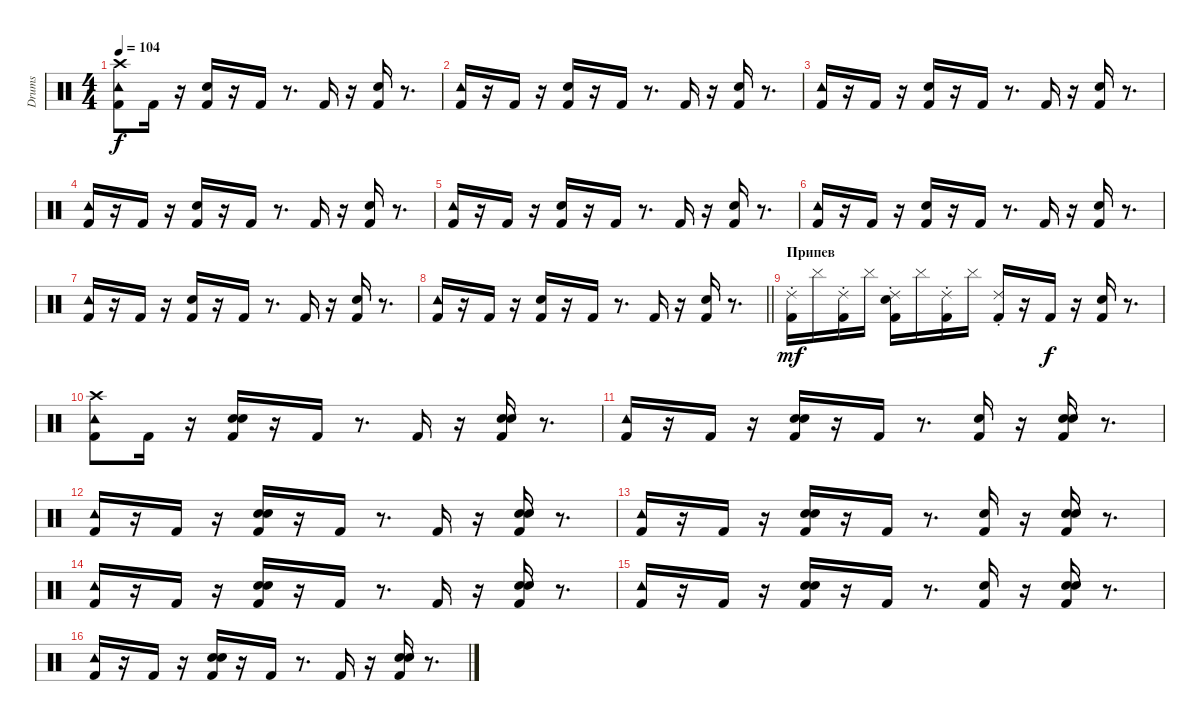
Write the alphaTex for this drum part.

\track ("Drums" "Drums") {instrument percussion}
\staff {score}
\articulation defaults
\ts (4 4)
\tempo 104
\clef neutral
\ks c
("Crash high (hit)" "Tambourine (hit)" "Kick (hit) 2").8{dy f} "Kick (hit) 2".16 r.16 ("Kick (hit) 2" "Snare (hit) 2").16 r.16 "Kick (hit) 2".16 r.8{d} "Kick (hit) 2".16 r.16 ("Snare (hit) 2" "Kick (hit) 2").16 r.8{d} |
("Tambourine (hit)" "Kick (hit) 2").16 r.16 "Kick (hit) 2".16 r.16 ("Kick (hit) 2" "Snare (hit) 2").16 r.16 "Kick (hit) 2".16 r.8{d} "Kick (hit) 2".16 r.16 ("Snare (hit) 2" "Kick (hit) 2").16 r.8{d} |
("Tambourine (hit)" "Kick (hit) 2").16 r.16 "Kick (hit) 2".16 r.16 ("Kick (hit) 2" "Snare (hit) 2").16 r.16 "Kick (hit) 2".16 r.8{d} "Kick (hit) 2".16 r.16 ("Snare (hit) 2" "Kick (hit) 2").16 r.8{d} |
("Tambourine (hit)" "Kick (hit) 2").16 r.16 "Kick (hit) 2".16 r.16 ("Kick (hit) 2" "Snare (hit) 2").16 r.16 "Kick (hit) 2".16 r.8{d} "Kick (hit) 2".16 r.16 ("Snare (hit) 2" "Kick (hit) 2").16 r.8{d} |
("Tambourine (hit)" "Kick (hit) 2").16 r.16 "Kick (hit) 2".16 r.16 ("Kick (hit) 2" "Snare (hit) 2").16 r.16 "Kick (hit) 2".16 r.8{d} "Kick (hit) 2".16 r.16 ("Snare (hit) 2" "Kick (hit) 2").16 r.8{d} |
("Tambourine (hit)" "Kick (hit) 2").16 r.16 "Kick (hit) 2".16 r.16 ("Kick (hit) 2" "Snare (hit) 2").16 r.16 "Kick (hit) 2".16 r.8{d} "Kick (hit) 2".16 r.16 ("Snare (hit) 2" "Kick (hit) 2").16 r.8{d} |
("Tambourine (hit)" "Kick (hit) 2").16 r.16 "Kick (hit) 2".16 r.16 ("Kick (hit) 2" "Snare (hit) 2").16 r.16 "Kick (hit) 2".16 r.8{d} "Kick (hit) 2".16 r.16 ("Snare (hit) 2" "Kick (hit) 2").16 r.8{d} |
\barLineRight lightlight
("Tambourine (hit)" "Kick (hit) 2").16 r.16 "Kick (hit) 2".16 r.16 ("Kick (hit) 2" "Snare (hit) 2").16 r.16 "Kick (hit) 2".16 r.8{d} "Kick (hit) 2".16 r.16 ("Snare (hit) 2" "Kick (hit) 2").16 r.8{d} |
\section ("" "Припев")
("Kick (hit) 2" "Ride (choke) 2").16{dy mf} "Cymbal (hit)".16 ("Kick (hit) 2" "Ride (choke) 2").16 "Cymbal (hit)".16 ("Snare (hit) 2" "Kick (hit) 2" "Ride (choke) 2").16 "Cymbal (hit)".16 ("Kick (hit) 2" "Ride (choke) 2").16 "Cymbal (hit)".16 ("Kick (hit) 2" "Ride (choke) 2").16 r.16 "Kick (hit) 2".16{dy f} r.16 ("Snare (hit) 2" "Kick (hit) 2").16 r.8{d} |
("Crash high (hit)" "Tambourine (hit)" "Kick (hit) 2").8 "Kick (hit) 2".16 r.16 ("Hand Clap (hit)" "Kick (hit) 2" "Snare (hit) 2").16 r.16 "Kick (hit) 2".16 r.8{d} "Kick (hit) 2".16 r.16 ("Hand Clap (hit)" "Snare (hit) 2" "Kick (hit) 2").16 r.8{d} |
("Tambourine (hit)" "Kick (hit) 2").16 r.16 "Kick (hit) 2".16 r.16 ("Hand Clap (hit)" "Kick (hit) 2" "Snare (hit) 2").16 r.16 "Kick (hit) 2".16 r.8{d} ("Hand Clap (hit)" "Kick (hit) 2").16 r.16 ("Hand Clap (hit)" "Snare (hit) 2" "Kick (hit) 2").16 r.8{d} |
("Tambourine (hit)" "Kick (hit) 2").16 r.16 "Kick (hit) 2".16 r.16 ("Kick (hit) 2" "Snare (hit) 2" "Hand Clap (hit)").16 r.16 "Kick (hit) 2".16 r.8{d} "Kick (hit) 2".16 r.16 ("Snare (hit) 2" "Kick (hit) 2" "Hand Clap (hit)").16 r.8{d} |
("Tambourine (hit)" "Kick (hit) 2").16 r.16 "Kick (hit) 2".16 r.16 ("Hand Clap (hit)" "Kick (hit) 2" "Snare (hit) 2").16 r.16 "Kick (hit) 2".16 r.8{d} ("Hand Clap (hit)" "Kick (hit) 2").16 r.16 ("Hand Clap (hit)" "Snare (hit) 2" "Kick (hit) 2").16 r.8{d} |
("Tambourine (hit)" "Kick (hit) 2").16 r.16 "Kick (hit) 2".16 r.16 ("Kick (hit) 2" "Snare (hit) 2" "Hand Clap (hit)").16 r.16 "Kick (hit) 2".16 r.8{d} "Kick (hit) 2".16 r.16 ("Snare (hit) 2" "Kick (hit) 2" "Hand Clap (hit)").16 r.8{d} |
("Tambourine (hit)" "Kick (hit) 2").16 r.16 "Kick (hit) 2".16 r.16 ("Hand Clap (hit)" "Kick (hit) 2" "Snare (hit) 2").16 r.16 "Kick (hit) 2".16 r.8{d} ("Hand Clap (hit)" "Kick (hit) 2").16 r.16 ("Hand Clap (hit)" "Snare (hit) 2" "Kick (hit) 2").16 r.8{d} |
("Tambourine (hit)" "Kick (hit) 2").16 r.16 "Kick (hit) 2".16 r.16 ("Kick (hit) 2" "Snare (hit) 2" "Hand Clap (hit)").16 r.16 "Kick (hit) 2".16 r.8{d} "Kick (hit) 2".16 r.16 ("Snare (hit) 2" "Kick (hit) 2" "Hand Clap (hit)").16 r.8{d}
